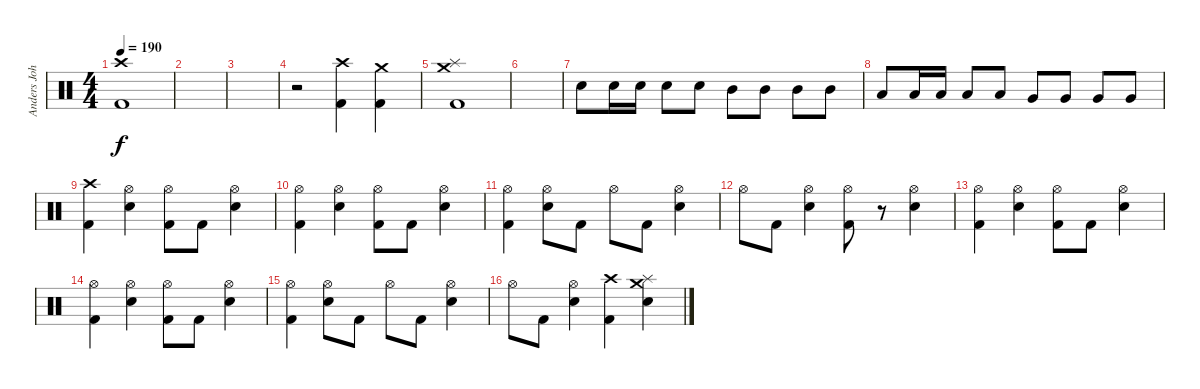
\track ("Anders Johansson Drums" "Anders Joh") {instrument percussion}
\staff {score}
\articulation defaults
\ts (4 4)
\tempo 190
\clef neutral
\ks c
("Crash high (hit)" "Kick (hit) 2").1{dy f} |
|
|
r.2 ("Crash high (hit)" "Kick (hit) 2").4 ("Crash medium (hit)" "Kick (hit) 2").4 |
("Crash medium (hit)" "Splash (hit)" "Kick (hit) 2").1 |
|
"Snare (hit) 2".8 "Snare (hit) 2".16 "Snare (hit) 2".16 "Snare (hit) 2".8 "Snare (hit) 2".8 "Mid Tom (hit)".8 "Mid Tom (hit)".8 "Mid Tom (hit)".8 "Mid Tom (hit)".8 |
"Low Tom (hit)".8 "Low Tom (hit)".16 "Low Tom (hit)".16 "Low Tom (hit)".8 "Low Tom (hit)".8 "Very Low Tom (hit)".8 "Very Low Tom (hit)".8 "Very Low Tom (hit)".8 "Very Low Tom (hit)".8 |
("Crash high (hit)" "Kick (hit) 2").4 ("Hi-Hat (open)" "Snare (hit) 2").4 ("Hi-Hat (open)" "Kick (hit) 2").8 "Kick (hit) 2".8 ("Hi-Hat (open)" "Snare (hit) 2").4 |
("Hi-Hat (open)" "Kick (hit) 2").4 ("Hi-Hat (open)" "Snare (hit) 2").4 ("Hi-Hat (open)" "Kick (hit) 2").8 "Kick (hit) 2".8 ("Hi-Hat (open)" "Snare (hit) 2").4 |
("Hi-Hat (open)" "Kick (hit) 2").4 ("Hi-Hat (open)" "Snare (hit) 2").8 "Kick (hit) 2".8 "Hi-Hat (open)".8 "Kick (hit) 2".8 ("Hi-Hat (open)" "Snare (hit) 2").4 |
"Hi-Hat (open)".8 "Kick (hit) 2".8 ("Hi-Hat (open)" "Snare (hit) 2").4 ("Hi-Hat (open)" "Kick (hit) 2").8 r.8 ("Hi-Hat (open)" "Snare (hit) 2").4 |
("Hi-Hat (open)" "Kick (hit) 2").4 ("Hi-Hat (open)" "Snare (hit) 2").4 ("Hi-Hat (open)" "Kick (hit) 2").8 "Kick (hit) 2".8 ("Hi-Hat (open)" "Snare (hit) 2").4 |
("Hi-Hat (open)" "Kick (hit) 2").4 ("Hi-Hat (open)" "Snare (hit) 2").4 ("Hi-Hat (open)" "Kick (hit) 2").8 "Kick (hit) 2".8 ("Hi-Hat (open)" "Snare (hit) 2").4 |
("Hi-Hat (open)" "Kick (hit) 2").4 ("Hi-Hat (open)" "Snare (hit) 2").8 "Kick (hit) 2".8 "Hi-Hat (open)".8 "Kick (hit) 2".8 ("Hi-Hat (open)" "Snare (hit) 2").4 |
"Hi-Hat (open)".8 "Kick (hit) 2".8 ("Hi-Hat (open)" "Snare (hit) 2").4 ("Crash high (hit)" "Kick (hit) 2").4 ("Crash medium (hit)" "Splash (hit)" "Snare (hit) 2").4
